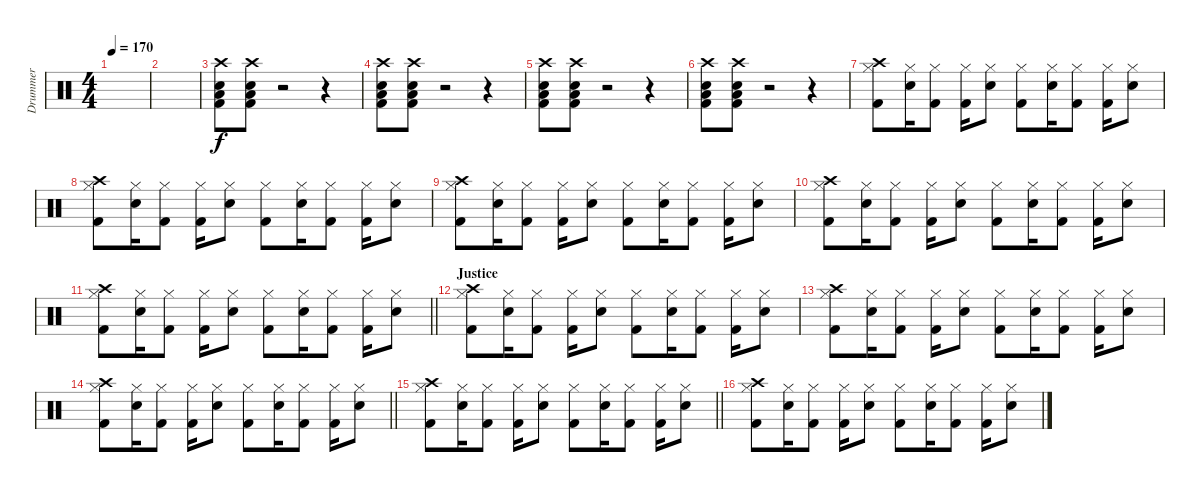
\track ("Drummer" "Drummer") {instrument percussion}
\staff {score}
\articulation defaults
\ts (4 4)
\tempo 170
\clef neutral
\ks c
|
|
("Kick (hit) 2" "Low Tom (hit)" "Electric Snare (hit)" "Crash high (hit)").8 ("Kick (hit) 2" "Low Tom (hit)" "Electric Snare (hit)" "Crash high (hit)").8 r.2 r.4 |
("Kick (hit) 2" "Low Tom (hit)" "Electric Snare (hit)" "Crash high (hit)").8 ("Kick (hit) 2" "Low Tom (hit)" "Electric Snare (hit)" "Crash high (hit)").8 r.2 r.4 |
("Kick (hit) 2" "Low Tom (hit)" "Electric Snare (hit)" "Crash high (hit)").8 ("Kick (hit) 2" "Low Tom (hit)" "Electric Snare (hit)" "Crash high (hit)").8 r.2 r.4 |
("Kick (hit) 2" "Low Tom (hit)" "Electric Snare (hit)" "Crash high (hit)").8 ("Kick (hit) 2" "Low Tom (hit)" "Electric Snare (hit)" "Crash high (hit)").8 r.2 r.4 |
("Kick (hit) 2" "Hi-Hat (closed)" "Crash high (hit)").8 ("Snare (hit) 2" "Hi-Hat (closed)").16 ("Kick (hit) 2" "Hi-Hat (closed)").8 ("Kick (hit) 2" "Hi-Hat (closed)").16 ("Electric Snare (hit)" "Hi-Hat (closed)").8 ("Kick (hit) 2" "Hi-Hat (closed)").8 ("Electric Snare (hit)" "Hi-Hat (closed)").16 ("Kick (hit) 2" "Hi-Hat (closed)").8 ("Kick (hit) 2" "Hi-Hat (closed)").16 ("Electric Snare (hit)" "Hi-Hat (closed)").8 |
("Kick (hit) 2" "Hi-Hat (closed)" "Crash high (hit)").8 ("Electric Snare (hit)" "Hi-Hat (closed)").16 ("Kick (hit) 2" "Hi-Hat (closed)").8 ("Kick (hit) 2" "Hi-Hat (closed)").16 ("Electric Snare (hit)" "Hi-Hat (closed)").8 ("Kick (hit) 2" "Hi-Hat (closed)").8 ("Electric Snare (hit)" "Hi-Hat (closed)").16 ("Kick (hit) 2" "Hi-Hat (closed)").8 ("Kick (hit) 2" "Hi-Hat (closed)").16 ("Electric Snare (hit)" "Hi-Hat (closed)").8 |
("Kick (hit) 2" "Hi-Hat (closed)" "Crash high (hit)").8 ("Electric Snare (hit)" "Hi-Hat (closed)").16 ("Kick (hit) 2" "Hi-Hat (closed)").8 ("Kick (hit) 2" "Hi-Hat (closed)").16 ("Electric Snare (hit)" "Hi-Hat (closed)").8 ("Kick (hit) 2" "Hi-Hat (closed)").8 ("Electric Snare (hit)" "Hi-Hat (closed)").16 ("Kick (hit) 2" "Hi-Hat (closed)").8 ("Kick (hit) 2" "Hi-Hat (closed)").16 ("Electric Snare (hit)" "Hi-Hat (closed)").8 |
("Kick (hit) 2" "Hi-Hat (closed)" "Crash high (hit)").8 ("Electric Snare (hit)" "Hi-Hat (closed)").16 ("Kick (hit) 2" "Hi-Hat (closed)").8 ("Kick (hit) 2" "Hi-Hat (closed)").16 ("Electric Snare (hit)" "Hi-Hat (closed)").8 ("Kick (hit) 2" "Hi-Hat (closed)").8 ("Electric Snare (hit)" "Hi-Hat (closed)").16 ("Kick (hit) 2" "Hi-Hat (closed)").8 ("Kick (hit) 2" "Hi-Hat (closed)").16 ("Electric Snare (hit)" "Hi-Hat (closed)").8 |
\barLineRight lightlight
("Kick (hit) 2" "Hi-Hat (closed)" "Crash high (hit)").8 ("Electric Snare (hit)" "Hi-Hat (closed)").16 ("Kick (hit) 2" "Hi-Hat (closed)").8 ("Kick (hit) 2" "Hi-Hat (closed)").16 ("Electric Snare (hit)" "Hi-Hat (closed)").8 ("Kick (hit) 2" "Hi-Hat (closed)").8 ("Electric Snare (hit)" "Hi-Hat (closed)").16 ("Kick (hit) 2" "Hi-Hat (closed)").8 ("Kick (hit) 2" "Hi-Hat (closed)").16 ("Electric Snare (hit)" "Hi-Hat (closed)").8 |
\section ("" "Justice")
("Kick (hit) 2" "Hi-Hat (closed)" "Crash high (hit)").8 ("Electric Snare (hit)" "Hi-Hat (closed)").16 ("Kick (hit) 2" "Hi-Hat (closed)").8 ("Kick (hit) 2" "Hi-Hat (closed)").16 ("Electric Snare (hit)" "Hi-Hat (closed)").8 ("Kick (hit) 2" "Hi-Hat (closed)").8 ("Electric Snare (hit)" "Hi-Hat (closed)").16 ("Kick (hit) 2" "Hi-Hat (closed)").8 ("Kick (hit) 2" "Hi-Hat (closed)").16 ("Electric Snare (hit)" "Hi-Hat (closed)").8 |
("Kick (hit) 2" "Hi-Hat (closed)" "Crash high (hit)").8 ("Electric Snare (hit)" "Hi-Hat (closed)").16 ("Kick (hit) 2" "Hi-Hat (closed)").8 ("Kick (hit) 2" "Hi-Hat (closed)").16 ("Electric Snare (hit)" "Hi-Hat (closed)").8 ("Kick (hit) 2" "Hi-Hat (closed)").8 ("Electric Snare (hit)" "Hi-Hat (closed)").16 ("Kick (hit) 2" "Hi-Hat (closed)").8 ("Kick (hit) 2" "Hi-Hat (closed)").16 ("Electric Snare (hit)" "Hi-Hat (closed)").8 |
\barLineRight lightlight
("Kick (hit) 2" "Hi-Hat (closed)" "Crash high (hit)").8 ("Electric Snare (hit)" "Hi-Hat (closed)").16 ("Kick (hit) 2" "Hi-Hat (closed)").8 ("Kick (hit) 2" "Hi-Hat (closed)").16 ("Electric Snare (hit)" "Hi-Hat (closed)").8 ("Kick (hit) 2" "Hi-Hat (closed)").8 ("Electric Snare (hit)" "Hi-Hat (closed)").16 ("Kick (hit) 2" "Hi-Hat (closed)").8 ("Kick (hit) 2" "Hi-Hat (closed)").16 ("Electric Snare (hit)" "Hi-Hat (closed)").8 |
\barLineRight lightlight
("Kick (hit) 2" "Hi-Hat (closed)" "Crash high (hit)").8 ("Electric Snare (hit)" "Hi-Hat (closed)").16 ("Kick (hit) 2" "Hi-Hat (closed)").8 ("Kick (hit) 2" "Hi-Hat (closed)").16 ("Electric Snare (hit)" "Hi-Hat (closed)").8 ("Kick (hit) 2" "Hi-Hat (closed)").8 ("Electric Snare (hit)" "Hi-Hat (closed)").16 ("Kick (hit) 2" "Hi-Hat (closed)").8 ("Kick (hit) 2" "Hi-Hat (closed)").16 ("Electric Snare (hit)" "Hi-Hat (closed)").8 |
("Kick (hit) 2" "Hi-Hat (closed)" "Crash high (hit)").8 ("Electric Snare (hit)" "Hi-Hat (closed)").16 ("Kick (hit) 2" "Hi-Hat (closed)").8 ("Kick (hit) 2" "Hi-Hat (closed)").16 ("Electric Snare (hit)" "Hi-Hat (closed)").8 ("Kick (hit) 2" "Hi-Hat (closed)").8 ("Electric Snare (hit)" "Hi-Hat (closed)").16 ("Kick (hit) 2" "Hi-Hat (closed)").8 ("Kick (hit) 2" "Hi-Hat (closed)").16 ("Electric Snare (hit)" "Hi-Hat (closed)").8
